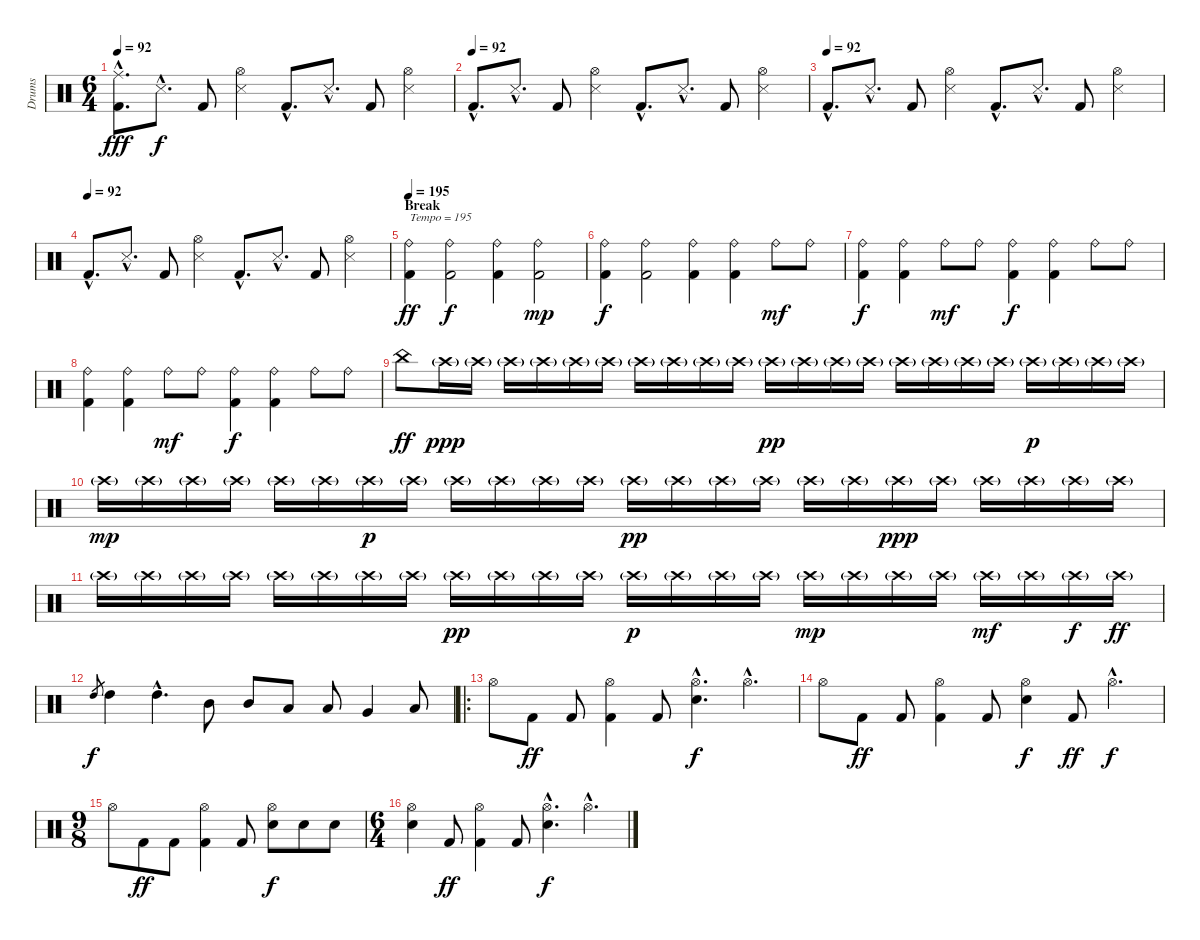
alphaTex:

\track ("Drums" "Drums") {instrument percussion}
\staff {score}
\articulation defaults
\ts (6 4)
\tempo 92
\clef neutral
\ks c
("Ride (middle)"{hac} "Kick (hit) 2"{hac}).8{d dy fff} "Snare (side stick) 3"{hac}.8{d dy f} "Kick (hit) 2".8 ("Hi-Hat (open)" "Snare (side stick) 3").4 "Kick (hit) 2"{hac}.8{d} "Snare (side stick) 3"{hac}.8{d} "Kick (hit) 2".8 ("Hi-Hat (open)" "Snare (side stick) 3").4 |
\tempo (92)
"Kick (hit) 2"{hac}.8{d} "Snare (side stick) 3"{hac}.8{d} "Kick (hit) 2".8 ("Hi-Hat (open)" "Snare (side stick) 3").4 "Kick (hit) 2"{hac}.8{d} "Snare (side stick) 3"{hac}.8{d} "Kick (hit) 2".8 ("Hi-Hat (open)" "Snare (side stick) 3").4 |
\tempo (92)
"Kick (hit) 2"{hac}.8{d} "Snare (side stick) 3"{hac}.8{d} "Kick (hit) 2".8 ("Hi-Hat (open)" "Snare (side stick) 3").4 "Kick (hit) 2"{hac}.8{d} "Snare (side stick) 3"{hac}.8{d} "Kick (hit) 2".8 ("Hi-Hat (open)" "Snare (side stick) 3").4 |
\tempo (92)
"Kick (hit) 2"{hac}.8{d} "Snare (side stick) 3"{hac}.8{d} "Kick (hit) 2".8 ("Hi-Hat (open)" "Snare (side stick) 3").4 "Kick (hit) 2"{hac}.8{d} "Snare (side stick) 3"{hac}.8{d} "Kick (hit) 2".8 ("Hi-Hat (open)" "Snare (side stick) 3").4 |
\section ("" "Break")
\tempo 195
("Ride (bell)" "Kick (hit) 2").4{txt "Tempo = 195" dy ff} ("Ride (bell)" "Kick (hit) 2").2{dy f} ("Ride (bell)" "Kick (hit) 2").4 ("Ride (bell)" "Kick (hit) 2").2{dy mp} |
("Ride (bell)" "Kick (hit) 2").4{dy f} ("Ride (bell)" "Kick (hit) 2").2 ("Ride (bell)" "Kick (hit) 2").4 ("Ride (bell)" "Kick (hit) 2").4 "Ride (bell)".8{dy mf} "Ride (bell)".8 |
("Ride (bell)" "Kick (hit) 2").4{dy f} ("Ride (bell)" "Kick (hit) 2").4 "Ride (bell)".8{dy mf} "Ride (bell)".8 ("Ride (bell)" "Kick (hit) 2").4{dy f} ("Ride (bell)" "Kick (hit) 2").4 "Ride (bell)".8 "Ride (bell)".8 |
("Ride (bell)" "Kick (hit) 2").4 ("Ride (bell)" "Kick (hit) 2").4 "Ride (bell)".8{dy mf} "Ride (bell)".8 ("Ride (bell)" "Kick (hit) 2").4{dy f} ("Ride (bell)" "Kick (hit) 2").4 "Ride (bell)".8 "Ride (bell)".8 |
"China (hit)".8{dy ff} "Crash high (hit)"{g}.16{dy ppp} "Crash high (hit)"{g}.16 "Crash high (hit)"{g}.16 "Crash high (hit)"{g}.16 "Crash high (hit)"{g}.16 "Crash high (hit)"{g}.16 "Crash high (hit)"{g}.16 "Crash high (hit)"{g}.16 "Crash high (hit)"{g}.16 "Crash high (hit)"{g}.16 "Crash high (hit)"{g}.16{dy pp} "Crash high (hit)"{g}.16 "Crash high (hit)"{g}.16 "Crash high (hit)"{g}.16 "Crash high (hit)"{g}.16 "Crash high (hit)"{g}.16 "Crash high (hit)"{g}.16 "Crash high (hit)"{g}.16 "Crash high (hit)"{g}.16{dy p} "Crash high (hit)"{g}.16 "Crash high (hit)"{g}.16 "Crash high (hit)"{g}.16 |
"Crash high (hit)"{g}.16{dy mp} "Crash high (hit)"{g}.16 "Crash high (hit)"{g}.16 "Crash high (hit)"{g}.16 "Crash high (hit)"{g}.16 "Crash high (hit)"{g}.16 "Crash high (hit)"{g}.16{dy p} "Crash high (hit)"{g}.16 "Crash high (hit)"{g}.16 "Crash high (hit)"{g}.16 "Crash high (hit)"{g}.16 "Crash high (hit)"{g}.16 "Crash high (hit)"{g}.16{dy pp} "Crash high (hit)"{g}.16 "Crash high (hit)"{g}.16 "Crash high (hit)"{g}.16 "Crash high (hit)"{g}.16 "Crash high (hit)"{g}.16 "Crash high (hit)"{g}.16{dy ppp} "Crash high (hit)"{g}.16 "Crash high (hit)"{g}.16 "Crash high (hit)"{g}.16 "Crash high (hit)"{g}.16 "Crash high (hit)"{g}.16 |
"Crash high (hit)"{g}.16 "Crash high (hit)"{g}.16 "Crash high (hit)"{g}.16 "Crash high (hit)"{g}.16 "Crash high (hit)"{g}.16 "Crash high (hit)"{g}.16 "Crash high (hit)"{g}.16 "Crash high (hit)"{g}.16 "Crash high (hit)"{g}.16{dy pp} "Crash high (hit)"{g}.16 "Crash high (hit)"{g}.16 "Crash high (hit)"{g}.16 "Crash high (hit)"{g}.16{dy p} "Crash high (hit)"{g}.16 "Crash high (hit)"{g}.16 "Crash high (hit)"{g}.16 "Crash high (hit)"{g}.16{dy mp} "Crash high (hit)"{g}.16 "Crash high (hit)"{g}.16 "Crash high (hit)"{g}.16 "Crash high (hit)"{g}.16{dy mf} "Crash high (hit)"{g}.16 "Crash high (hit)"{g}.16{dy f} "Crash high (hit)"{g}.16{dy ff} |
"High Tom (hit)".8{gr dy f} "High Tom (hit)".4 "High Tom (hit)"{hac}.4{d} "Mid Tom (hit)".8 "Mid Tom (hit)".8 "Low Tom (hit)".8 "Low Tom (hit)".8 "Very Low Tom (hit)".4 "Low Floor Tom (hit)".8 |
\ro "Hi-Hat (open)".8 "Kick (hit) 2".8{dy ff} "Kick (hit) 2".8
("Hi-Hat (open)" "Kick (hit) 2").4 "Kick (hit) 2".8 ("Hi-Hat (open)"{hac} "Electric Snare (hit)"{hac}).4{d dy f} "Hi-Hat (open)"{hac}.4{d} |
"Hi-Hat (open)".8 "Kick (hit) 2".8{dy ff} "Kick (hit) 2".8 ("Hi-Hat (open)" "Kick (hit) 2").4 "Kick (hit) 2".8 ("Hi-Hat (open)" "Electric Snare (hit)").4{dy f} "Kick (hit) 2".8{dy ff} "Hi-Hat (open)"{hac}.4{d dy f} |
\ts (9 8)
"Hi-Hat (open)".8 "Kick (hit) 2".8{dy ff} "Kick (hit) 2".8 ("Hi-Hat (open)" "Kick (hit) 2").4 "Kick (hit) 2".8 ("Hi-Hat (open)" "Electric Snare (hit)").8{dy f} "Electric Snare (hit)".8 "Electric Snare (hit)".8 |
\ts (6 4)
("Hi-Hat (open)" "Electric Snare (hit)").4 "Kick (hit) 2".8{dy ff} ("Hi-Hat (open)" "Kick (hit) 2").4 "Kick (hit) 2".8 ("Hi-Hat (open)"{hac} "Electric Snare (hit)"{hac}).4{d dy f} "Hi-Hat (open)"{hac}.4{d}
